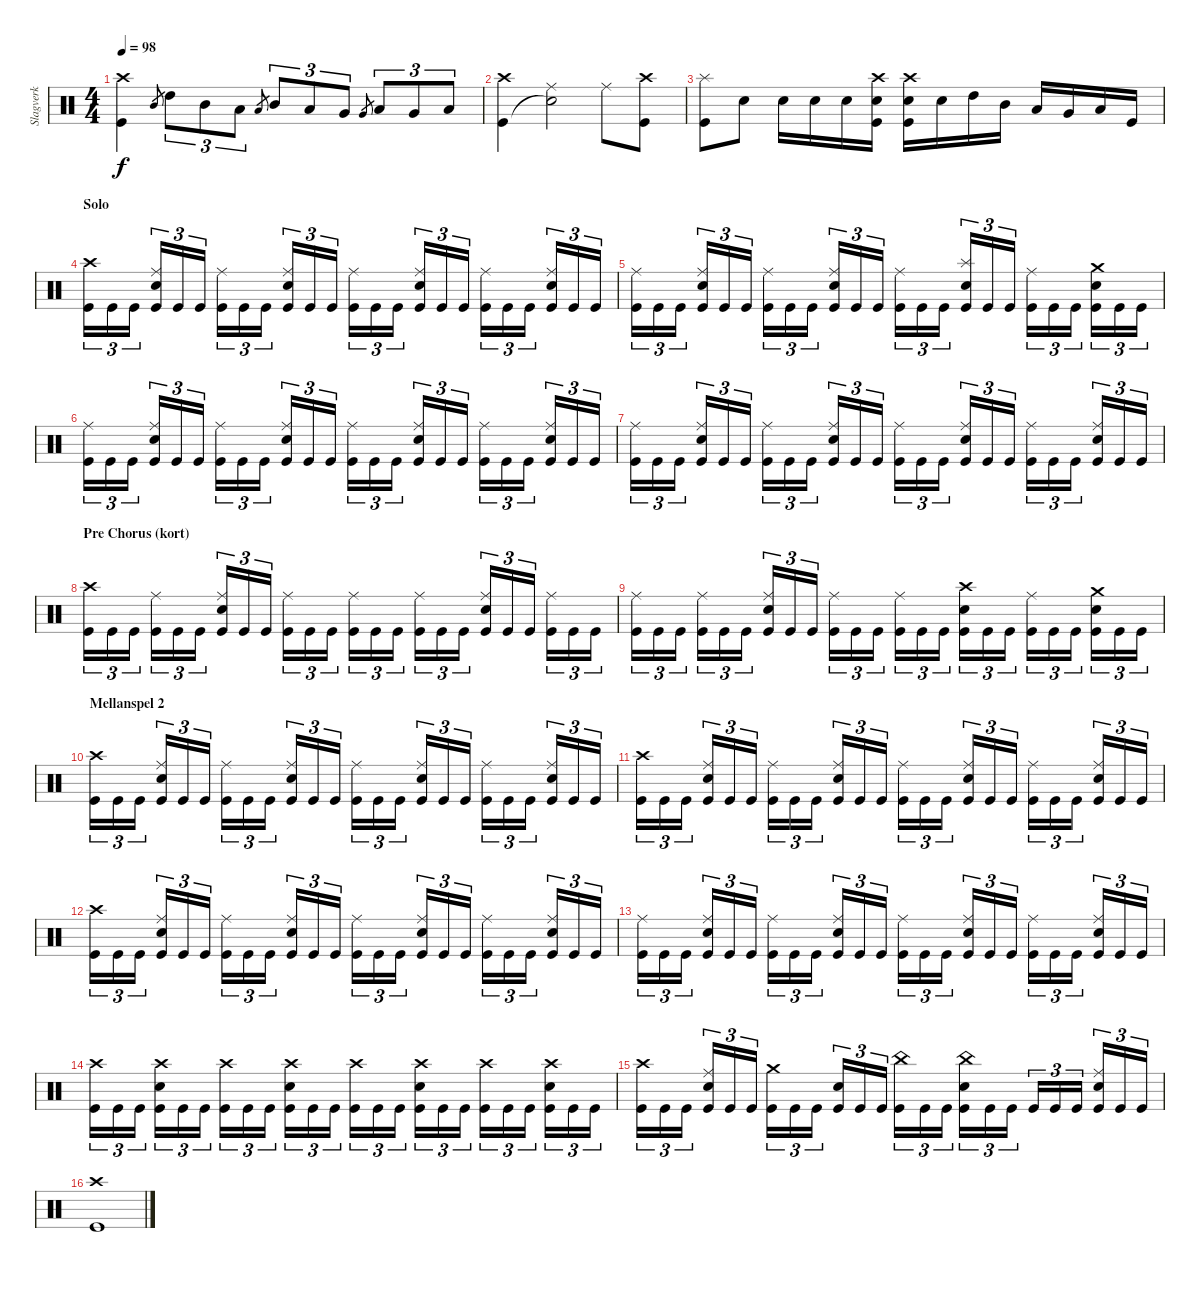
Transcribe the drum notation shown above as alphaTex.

\track ("Slagverk" "Slagverk") {instrument percussion}
\staff {score}
\articulation defaults
\ts (4 4)
\tempo 98
\clef neutral
\ks c
("Crash high (hit)" "Kick (hit)").4{dy f} "Mid Tom (hit)".8{gr} "High Tom (hit)".8{tu (3 2)} "Mid Tom (hit)".8{tu (3 2)} "Low Tom (hit)".8{tu (3 2)} "Low Tom (hit)"{sl}.8{gr} "Mid Tom (hit)".8{tu (3 2)} "Low Tom (hit)".8{tu (3 2)} "Very Low Tom (hit)".8{tu (3 2)} "Very Low Tom (hit)"{sl}.8{gr} "Low Tom (hit)".8{tu (3 2)} "Very Low Tom (hit)".8{tu (3 2)} "Low Floor Tom (hit)".8{tu (3 2)} |
("Crash high (hit)" "Kick (hit)").4 ("Ride (middle)" "Snare (hit)"{t}).2 "Ride (middle)".8 ("Crash high (hit)" "Kick (hit)").8 |
("Splash (hit)" "Kick (hit)").8 "Electric Snare (hit)".8 "Electric Snare (hit)".16 "Electric Snare (hit)".16 "Electric Snare (hit)".16 ("Crash high (hit)" "Electric Snare (hit)" "Kick (hit)").16 ("Crash high (hit)" "Electric Snare (hit)" "Kick (hit)").16 "Electric Snare (hit)".16 "High Tom (hit)".16 "Mid Tom (hit)".16 "Low Tom (hit)".16 "Very Low Tom (hit)".16 "Low Floor Tom (hit)".16 "Kick (hit)".16 |
\section ("" "Solo")
("Crash high (hit)" "Kick (hit)").16{tu (3 2)} "Kick (hit)".16{tu (3 2)} "Kick (hit)".16{tu (3 2)} ("Ride (middle)" "Electric Snare (hit)" "Kick (hit)").16{tu (3 2)} "Kick (hit)".16{tu (3 2)} "Kick (hit)".16{tu (3 2)} ("Ride (middle)" "Kick (hit)").16{tu (3 2)} "Kick (hit)".16{tu (3 2)} "Kick (hit)".16{tu (3 2)} ("Ride (middle)" "Electric Snare (hit)" "Kick (hit)").16{tu (3 2)} "Kick (hit)".16{tu (3 2)} "Kick (hit)".16{tu (3 2)} ("Ride (middle)" "Kick (hit)").16{tu (3 2)} "Kick (hit)".16{tu (3 2)} "Kick (hit)".16{tu (3 2)} ("Ride (middle)" "Electric Snare (hit)" "Kick (hit)").16{tu (3 2)} "Kick (hit)".16{tu (3 2)} "Kick (hit)".16{tu (3 2)} ("Ride (middle)" "Kick (hit)").16{tu (3 2)} "Kick (hit)".16{tu (3 2)} "Kick (hit)".16{tu (3 2)} ("Ride (middle)" "Electric Snare (hit)" "Kick (hit)").16{tu (3 2)} "Kick (hit)".16{tu (3 2)} "Kick (hit)".16{tu (3 2)} |
("Ride (middle)" "Kick (hit)").16{tu (3 2)} "Kick (hit)".16{tu (3 2)} "Kick (hit)".16{tu (3 2)} ("Ride (middle)" "Electric Snare (hit)" "Kick (hit)").16{tu (3 2)} "Kick (hit)".16{tu (3 2)} "Kick (hit)".16{tu (3 2)} ("Ride (middle)" "Kick (hit)").16{tu (3 2)} "Kick (hit)".16{tu (3 2)} "Kick (hit)".16{tu (3 2)} ("Ride (middle)" "Electric Snare (hit)" "Kick (hit)").16{tu (3 2)} "Kick (hit)".16{tu (3 2)} "Kick (hit)".16{tu (3 2)} ("Ride (middle)" "Kick (hit)").16{tu (3 2)} "Kick (hit)".16{tu (3 2)} "Kick (hit)".16{tu (3 2)} ("Splash (hit)" "Electric Snare (hit)" "Kick (hit)").16{tu (3 2)} "Kick (hit)".16{tu (3 2)} "Kick (hit)".16{tu (3 2)} ("Ride (middle)" "Kick (hit)").16{tu (3 2)} "Kick (hit)".16{tu (3 2)} "Kick (hit)".16{tu (3 2)} ("Crash medium (hit)" "Electric Snare (hit)" "Kick (hit)").16{tu (3 2)} "Kick (hit)".16{tu (3 2)} "Kick (hit)".16{tu (3 2)} |
("Ride (middle)" "Kick (hit)").16{tu (3 2)} "Kick (hit)".16{tu (3 2)} "Kick (hit)".16{tu (3 2)} ("Ride (middle)" "Electric Snare (hit)" "Kick (hit)").16{tu (3 2)} "Kick (hit)".16{tu (3 2)} "Kick (hit)".16{tu (3 2)} ("Ride (middle)" "Kick (hit)").16{tu (3 2)} "Kick (hit)".16{tu (3 2)} "Kick (hit)".16{tu (3 2)} ("Ride (middle)" "Electric Snare (hit)" "Kick (hit)").16{tu (3 2)} "Kick (hit)".16{tu (3 2)} "Kick (hit)".16{tu (3 2)} ("Ride (middle)" "Kick (hit)").16{tu (3 2)} "Kick (hit)".16{tu (3 2)} "Kick (hit)".16{tu (3 2)} ("Ride (middle)" "Electric Snare (hit)" "Kick (hit)").16{tu (3 2)} "Kick (hit)".16{tu (3 2)} "Kick (hit)".16{tu (3 2)} ("Ride (middle)" "Kick (hit)").16{tu (3 2)} "Kick (hit)".16{tu (3 2)} "Kick (hit)".16{tu (3 2)} ("Ride (middle)" "Electric Snare (hit)" "Kick (hit)").16{tu (3 2)} "Kick (hit)".16{tu (3 2)} "Kick (hit)".16{tu (3 2)} |
("Ride (middle)" "Kick (hit)").16{tu (3 2)} "Kick (hit)".16{tu (3 2)} "Kick (hit)".16{tu (3 2)} ("Ride (middle)" "Electric Snare (hit)" "Kick (hit)").16{tu (3 2)} "Kick (hit)".16{tu (3 2)} "Kick (hit)".16{tu (3 2)} ("Ride (middle)" "Kick (hit)").16{tu (3 2)} "Kick (hit)".16{tu (3 2)} "Kick (hit)".16{tu (3 2)} ("Ride (middle)" "Electric Snare (hit)" "Kick (hit)").16{tu (3 2)} "Kick (hit)".16{tu (3 2)} "Kick (hit)".16{tu (3 2)} ("Ride (middle)" "Kick (hit)").16{tu (3 2)} "Kick (hit)".16{tu (3 2)} "Kick (hit)".16{tu (3 2)} ("Ride (middle)" "Electric Snare (hit)" "Kick (hit)").16{tu (3 2)} "Kick (hit)".16{tu (3 2)} "Kick (hit)".16{tu (3 2)} ("Ride (middle)" "Kick (hit)").16{tu (3 2)} "Kick (hit)".16{tu (3 2)} "Kick (hit)".16{tu (3 2)} ("Ride (middle)" "Electric Snare (hit)" "Kick (hit)").16{tu (3 2)} "Kick (hit)".16{tu (3 2)} "Kick (hit)".16{tu (3 2)} |
\section ("" "Pre Chorus (kort)")
("Crash high (hit)" "Kick (hit)").16{tu (3 2)} "Kick (hit)".16{tu (3 2)} "Kick (hit)".16{tu (3 2)} ("Ride (middle)" "Kick (hit)").16{tu (3 2)} "Kick (hit)".16{tu (3 2)} "Kick (hit)".16{tu (3 2)} ("Ride (middle)" "Electric Snare (hit)" "Kick (hit)").16{tu (3 2)} "Kick (hit)".16{tu (3 2)} "Kick (hit)".16{tu (3 2)} ("Ride (middle)" "Kick (hit)").16{tu (3 2)} "Kick (hit)".16{tu (3 2)} "Kick (hit)".16{tu (3 2)} ("Ride (middle)" "Kick (hit)").16{tu (3 2)} "Kick (hit)".16{tu (3 2)} "Kick (hit)".16{tu (3 2)} ("Ride (middle)" "Kick (hit)").16{tu (3 2)} "Kick (hit)".16{tu (3 2)} "Kick (hit)".16{tu (3 2)} ("Ride (middle)" "Electric Snare (hit)" "Kick (hit)").16{tu (3 2)} "Kick (hit)".16{tu (3 2)} "Kick (hit)".16{tu (3 2)} ("Ride (middle)" "Kick (hit)").16{tu (3 2)} "Kick (hit)".16{tu (3 2)} "Kick (hit)".16{tu (3 2)} |
("Ride (middle)" "Kick (hit)").16{tu (3 2)} "Kick (hit)".16{tu (3 2)} "Kick (hit)".16{tu (3 2)} ("Ride (middle)" "Kick (hit)").16{tu (3 2)} "Kick (hit)".16{tu (3 2)} "Kick (hit)".16{tu (3 2)} ("Ride (middle)" "Electric Snare (hit)" "Kick (hit)").16{tu (3 2)} "Kick (hit)".16{tu (3 2)} "Kick (hit)".16{tu (3 2)} ("Ride (middle)" "Kick (hit)").16{tu (3 2)} "Kick (hit)".16{tu (3 2)} "Kick (hit)".16{tu (3 2)} ("Ride (middle)" "Kick (hit)").16{tu (3 2)} "Kick (hit)".16{tu (3 2)} "Kick (hit)".16{tu (3 2)} ("Crash high (hit)" "Electric Snare (hit)" "Kick (hit)").16{tu (3 2)} "Kick (hit)".16{tu (3 2)} "Kick (hit)".16{tu (3 2)} ("Ride (middle)" "Kick (hit)").16{tu (3 2)} "Kick (hit)".16{tu (3 2)} "Kick (hit)".16{tu (3 2)} ("Crash medium (hit)" "Electric Snare (hit)" "Kick (hit)").16{tu (3 2)} "Kick (hit)".16{tu (3 2)} "Kick (hit)".16{tu (3 2)} |
\section ("" "Mellanspel 2")
("Crash high (hit)" "Kick (hit)").16{tu (3 2)} "Kick (hit)".16{tu (3 2)} "Kick (hit)".16{tu (3 2)} ("Ride (middle)" "Electric Snare (hit)" "Kick (hit)").16{tu (3 2)} "Kick (hit)".16{tu (3 2)} "Kick (hit)".16{tu (3 2)} ("Ride (middle)" "Kick (hit)").16{tu (3 2)} "Kick (hit)".16{tu (3 2)} "Kick (hit)".16{tu (3 2)} ("Ride (middle)" "Electric Snare (hit)" "Kick (hit)").16{tu (3 2)} "Kick (hit)".16{tu (3 2)} "Kick (hit)".16{tu (3 2)} ("Ride (middle)" "Kick (hit)").16{tu (3 2)} "Kick (hit)".16{tu (3 2)} "Kick (hit)".16{tu (3 2)} ("Ride (middle)" "Electric Snare (hit)" "Kick (hit)").16{tu (3 2)} "Kick (hit)".16{tu (3 2)} "Kick (hit)".16{tu (3 2)} ("Ride (middle)" "Kick (hit)").16{tu (3 2)} "Kick (hit)".16{tu (3 2)} "Kick (hit)".16{tu (3 2)} ("Ride (middle)" "Electric Snare (hit)" "Kick (hit)").16{tu (3 2)} "Kick (hit)".16{tu (3 2)} "Kick (hit)".16{tu (3 2)} |
("Crash high (hit)" "Kick (hit)").16{tu (3 2)} "Kick (hit)".16{tu (3 2)} "Kick (hit)".16{tu (3 2)} ("Ride (middle)" "Electric Snare (hit)" "Kick (hit)").16{tu (3 2)} "Kick (hit)".16{tu (3 2)} "Kick (hit)".16{tu (3 2)} ("Ride (middle)" "Kick (hit)").16{tu (3 2)} "Kick (hit)".16{tu (3 2)} "Kick (hit)".16{tu (3 2)} ("Ride (middle)" "Electric Snare (hit)" "Kick (hit)").16{tu (3 2)} "Kick (hit)".16{tu (3 2)} "Kick (hit)".16{tu (3 2)} ("Ride (middle)" "Kick (hit)").16{tu (3 2)} "Kick (hit)".16{tu (3 2)} "Kick (hit)".16{tu (3 2)} ("Ride (middle)" "Electric Snare (hit)" "Kick (hit)").16{tu (3 2)} "Kick (hit)".16{tu (3 2)} "Kick (hit)".16{tu (3 2)} ("Ride (middle)" "Kick (hit)").16{tu (3 2)} "Kick (hit)".16{tu (3 2)} "Kick (hit)".16{tu (3 2)} ("Ride (middle)" "Electric Snare (hit)" "Kick (hit)").16{tu (3 2)} "Kick (hit)".16{tu (3 2)} "Kick (hit)".16{tu (3 2)} |
("Crash high (hit)" "Kick (hit)").16{tu (3 2)} "Kick (hit)".16{tu (3 2)} "Kick (hit)".16{tu (3 2)} ("Ride (middle)" "Electric Snare (hit)" "Kick (hit)").16{tu (3 2)} "Kick (hit)".16{tu (3 2)} "Kick (hit)".16{tu (3 2)} ("Ride (middle)" "Kick (hit)").16{tu (3 2)} "Kick (hit)".16{tu (3 2)} "Kick (hit)".16{tu (3 2)} ("Ride (middle)" "Electric Snare (hit)" "Kick (hit)").16{tu (3 2)} "Kick (hit)".16{tu (3 2)} "Kick (hit)".16{tu (3 2)} ("Ride (middle)" "Kick (hit)").16{tu (3 2)} "Kick (hit)".16{tu (3 2)} "Kick (hit)".16{tu (3 2)} ("Ride (middle)" "Electric Snare (hit)" "Kick (hit)").16{tu (3 2)} "Kick (hit)".16{tu (3 2)} "Kick (hit)".16{tu (3 2)} ("Ride (middle)" "Kick (hit)").16{tu (3 2)} "Kick (hit)".16{tu (3 2)} "Kick (hit)".16{tu (3 2)} ("Ride (middle)" "Electric Snare (hit)" "Kick (hit)").16{tu (3 2)} "Kick (hit)".16{tu (3 2)} "Kick (hit)".16{tu (3 2)} |
("Ride (middle)" "Kick (hit)").16{tu (3 2)} "Kick (hit)".16{tu (3 2)} "Kick (hit)".16{tu (3 2)} ("Ride (middle)" "Electric Snare (hit)" "Kick (hit)").16{tu (3 2)} "Kick (hit)".16{tu (3 2)} "Kick (hit)".16{tu (3 2)} ("Ride (middle)" "Kick (hit)").16{tu (3 2)} "Kick (hit)".16{tu (3 2)} "Kick (hit)".16{tu (3 2)} ("Ride (middle)" "Electric Snare (hit)" "Kick (hit)").16{tu (3 2)} "Kick (hit)".16{tu (3 2)} "Kick (hit)".16{tu (3 2)} ("Ride (middle)" "Kick (hit)").16{tu (3 2)} "Kick (hit)".16{tu (3 2)} "Kick (hit)".16{tu (3 2)} ("Ride (middle)" "Electric Snare (hit)" "Kick (hit)").16{tu (3 2)} "Kick (hit)".16{tu (3 2)} "Kick (hit)".16{tu (3 2)} ("Ride (middle)" "Kick (hit)").16{tu (3 2)} "Kick (hit)".16{tu (3 2)} "Kick (hit)".16{tu (3 2)} ("Ride (middle)" "Electric Snare (hit)" "Kick (hit)").16{tu (3 2)} "Kick (hit)".16{tu (3 2)} "Kick (hit)".16{tu (3 2)} |
("Crash high (hit)" "Kick (hit)").16{tu (3 2)} "Kick (hit)".16{tu (3 2)} "Kick (hit)".16{tu (3 2)} ("Crash high (hit)" "Electric Snare (hit)" "Kick (hit)").16{tu (3 2)} "Kick (hit)".16{tu (3 2)} "Kick (hit)".16{tu (3 2)} ("Crash high (hit)" "Kick (hit)").16{tu (3 2)} "Kick (hit)".16{tu (3 2)} "Kick (hit)".16{tu (3 2)} ("Crash high (hit)" "Electric Snare (hit)" "Kick (hit)").16{tu (3 2)} "Kick (hit)".16{tu (3 2)} "Kick (hit)".16{tu (3 2)} ("Crash high (hit)" "Kick (hit)").16{tu (3 2)} "Kick (hit)".16{tu (3 2)} "Kick (hit)".16{tu (3 2)} ("Crash high (hit)" "Electric Snare (hit)" "Kick (hit)").16{tu (3 2)} "Kick (hit)".16{tu (3 2)} "Kick (hit)".16{tu (3 2)} ("Crash high (hit)" "Kick (hit)").16{tu (3 2)} "Kick (hit)".16{tu (3 2)} "Kick (hit)".16{tu (3 2)} ("Crash high (hit)" "Electric Snare (hit)" "Kick (hit)").16{tu (3 2)} "Kick (hit)".16{tu (3 2)} "Kick (hit)".16{tu (3 2)} |
("Crash high (hit)" "Kick (hit)").16{tu (3 2)} "Kick (hit)".16{tu (3 2)} "Kick (hit)".16{tu (3 2)} ("Ride (middle)" "Electric Snare (hit)" "Kick (hit)").16{tu (3 2)} "Kick (hit)".16{tu (3 2)} "Kick (hit)".16{tu (3 2)} ("Crash medium (hit)" "Kick (hit)").16{tu (3 2)} "Kick (hit)".16{tu (3 2)} "Kick (hit)".16{tu (3 2)} ("Electric Snare (hit)" "Kick (hit)").16{tu (3 2)} "Kick (hit)".16{tu (3 2)} "Kick (hit)".16{tu (3 2)} ("China (hit)" "Kick (hit)").16{tu (3 2)} "Kick (hit)".16{tu (3 2)} "Kick (hit)".16{tu (3 2)} ("China (hit)" "Electric Snare (hit)" "Kick (hit)").16{tu (3 2)} "Kick (hit)".16{tu (3 2)} "Kick (hit)".16{tu (3 2)} "Kick (hit)".16{tu (3 2)} "Kick (hit)".16{tu (3 2)} "Kick (hit)".16{tu (3 2)} ("Ride (middle)" "Electric Snare (hit)" "Kick (hit)").16{tu (3 2)} "Kick (hit)".16{tu (3 2)} "Kick (hit)".16{tu (3 2)} |
("Crash high (hit)" "Kick (hit)").1
